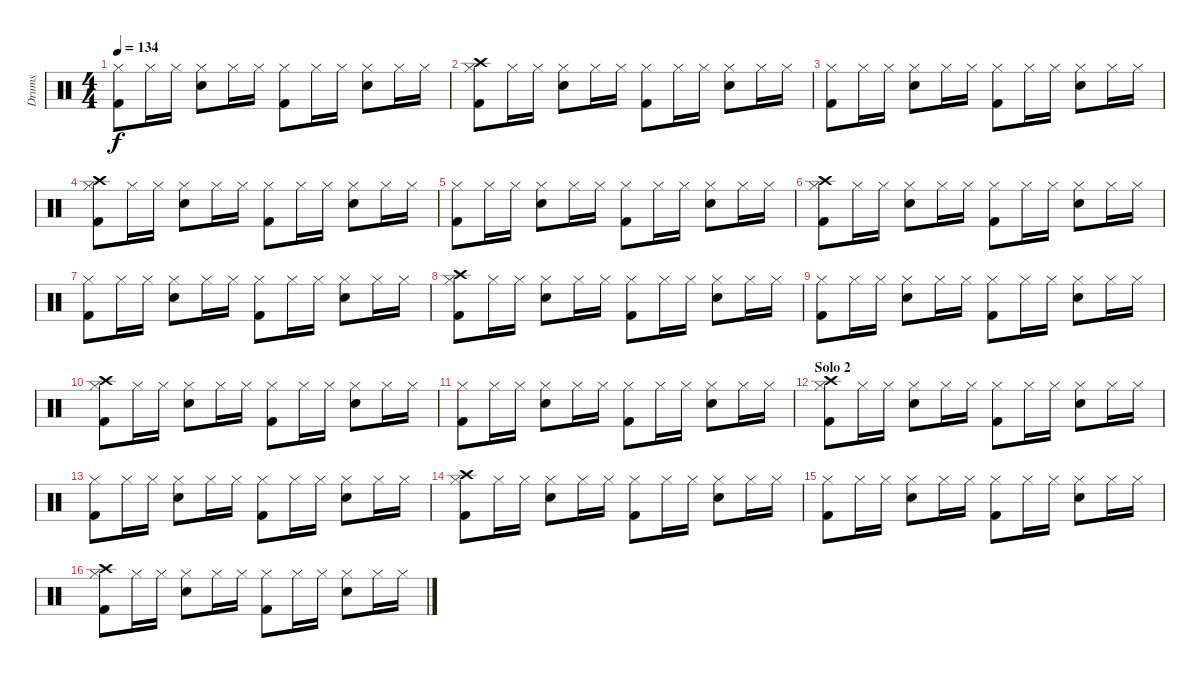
\track ("Drums" "Drums") {instrument percussion}
\staff {score}
\articulation defaults
\ts (4 4)
\tempo 134
\clef neutral
\ks c
("Kick (hit) 2" "Hi-Hat (closed)").8{dy f} "Hi-Hat (closed)".16 "Hi-Hat (closed)".16 ("Snare (hit) 2" "Hi-Hat (closed)").8 "Hi-Hat (closed)".16 "Hi-Hat (closed)".16 ("Kick (hit) 2" "Hi-Hat (closed)").8 "Hi-Hat (closed)".16 "Hi-Hat (closed)".16 ("Snare (hit) 2" "Hi-Hat (closed)").8 "Hi-Hat (closed)".16 "Hi-Hat (closed)".16 |
("Kick (hit) 2" "Hi-Hat (closed)" "Crash high (hit)").8 "Hi-Hat (closed)".16 "Hi-Hat (closed)".16 ("Snare (hit) 2" "Hi-Hat (closed)").8 "Hi-Hat (closed)".16 "Hi-Hat (closed)".16 ("Kick (hit) 2" "Hi-Hat (closed)").8 "Hi-Hat (closed)".16 "Hi-Hat (closed)".16 ("Snare (hit) 2" "Hi-Hat (closed)").8 "Hi-Hat (closed)".16 "Hi-Hat (closed)".16 |
("Kick (hit) 2" "Hi-Hat (closed)").8 "Hi-Hat (closed)".16 "Hi-Hat (closed)".16 ("Snare (hit) 2" "Hi-Hat (closed)").8 "Hi-Hat (closed)".16 "Hi-Hat (closed)".16 ("Kick (hit) 2" "Hi-Hat (closed)").8 "Hi-Hat (closed)".16 "Hi-Hat (closed)".16 ("Snare (hit) 2" "Hi-Hat (closed)").8 "Hi-Hat (closed)".16 "Hi-Hat (closed)".16 |
("Kick (hit) 2" "Hi-Hat (closed)" "Crash high (hit)").8 "Hi-Hat (closed)".16 "Hi-Hat (closed)".16 ("Snare (hit) 2" "Hi-Hat (closed)").8 "Hi-Hat (closed)".16 "Hi-Hat (closed)".16 ("Kick (hit) 2" "Hi-Hat (closed)").8 "Hi-Hat (closed)".16 "Hi-Hat (closed)".16 ("Snare (hit) 2" "Hi-Hat (closed)").8 "Hi-Hat (closed)".16 "Hi-Hat (closed)".16 |
("Kick (hit) 2" "Hi-Hat (closed)").8 "Hi-Hat (closed)".16 "Hi-Hat (closed)".16 ("Snare (hit) 2" "Hi-Hat (closed)").8 "Hi-Hat (closed)".16 "Hi-Hat (closed)".16 ("Kick (hit) 2" "Hi-Hat (closed)").8 "Hi-Hat (closed)".16 "Hi-Hat (closed)".16 ("Snare (hit) 2" "Hi-Hat (closed)").8 "Hi-Hat (closed)".16 "Hi-Hat (closed)".16 |
("Kick (hit) 2" "Hi-Hat (closed)" "Crash high (hit)").8 "Hi-Hat (closed)".16 "Hi-Hat (closed)".16 ("Snare (hit) 2" "Hi-Hat (closed)").8 "Hi-Hat (closed)".16 "Hi-Hat (closed)".16 ("Kick (hit) 2" "Hi-Hat (closed)").8 "Hi-Hat (closed)".16 "Hi-Hat (closed)".16 ("Snare (hit) 2" "Hi-Hat (closed)").8 "Hi-Hat (closed)".16 "Hi-Hat (closed)".16 |
("Kick (hit) 2" "Hi-Hat (closed)").8 "Hi-Hat (closed)".16 "Hi-Hat (closed)".16 ("Snare (hit) 2" "Hi-Hat (closed)").8 "Hi-Hat (closed)".16 "Hi-Hat (closed)".16 ("Kick (hit) 2" "Hi-Hat (closed)").8 "Hi-Hat (closed)".16 "Hi-Hat (closed)".16 ("Snare (hit) 2" "Hi-Hat (closed)").8 "Hi-Hat (closed)".16 "Hi-Hat (closed)".16 |
("Kick (hit) 2" "Hi-Hat (closed)" "Crash high (hit)").8 "Hi-Hat (closed)".16 "Hi-Hat (closed)".16 ("Snare (hit) 2" "Hi-Hat (closed)").8 "Hi-Hat (closed)".16 "Hi-Hat (closed)".16 ("Kick (hit) 2" "Hi-Hat (closed)").8 "Hi-Hat (closed)".16 "Hi-Hat (closed)".16 ("Snare (hit) 2" "Hi-Hat (closed)").8 "Hi-Hat (closed)".16 "Hi-Hat (closed)".16 |
("Kick (hit) 2" "Hi-Hat (closed)").8 "Hi-Hat (closed)".16 "Hi-Hat (closed)".16 ("Snare (hit) 2" "Hi-Hat (closed)").8 "Hi-Hat (closed)".16 "Hi-Hat (closed)".16 ("Kick (hit) 2" "Hi-Hat (closed)").8 "Hi-Hat (closed)".16 "Hi-Hat (closed)".16 ("Snare (hit) 2" "Hi-Hat (closed)").8 "Hi-Hat (closed)".16 "Hi-Hat (closed)".16 |
("Kick (hit) 2" "Hi-Hat (closed)" "Crash high (hit)").8 "Hi-Hat (closed)".16 "Hi-Hat (closed)".16 ("Snare (hit) 2" "Hi-Hat (closed)").8 "Hi-Hat (closed)".16 "Hi-Hat (closed)".16 ("Kick (hit) 2" "Hi-Hat (closed)").8 "Hi-Hat (closed)".16 "Hi-Hat (closed)".16 ("Snare (hit) 2" "Hi-Hat (closed)").8 "Hi-Hat (closed)".16 "Hi-Hat (closed)".16 |
("Kick (hit) 2" "Hi-Hat (closed)").8 "Hi-Hat (closed)".16 "Hi-Hat (closed)".16 ("Snare (hit) 2" "Hi-Hat (closed)").8 "Hi-Hat (closed)".16 "Hi-Hat (closed)".16 ("Kick (hit) 2" "Hi-Hat (closed)").8 "Hi-Hat (closed)".16 "Hi-Hat (closed)".16 ("Snare (hit) 2" "Hi-Hat (closed)").8 "Hi-Hat (closed)".16 "Hi-Hat (closed)".16 |
\section ("" "Solo 2")
("Kick (hit) 2" "Hi-Hat (closed)" "Crash high (hit)").8 "Hi-Hat (closed)".16 "Hi-Hat (closed)".16 ("Snare (hit) 2" "Hi-Hat (closed)").8 "Hi-Hat (closed)".16 "Hi-Hat (closed)".16 ("Kick (hit) 2" "Hi-Hat (closed)").8 "Hi-Hat (closed)".16 "Hi-Hat (closed)".16 ("Snare (hit) 2" "Hi-Hat (closed)").8 "Hi-Hat (closed)".16 "Hi-Hat (closed)".16 |
("Kick (hit) 2" "Hi-Hat (closed)").8 "Hi-Hat (closed)".16 "Hi-Hat (closed)".16 ("Snare (hit) 2" "Hi-Hat (closed)").8 "Hi-Hat (closed)".16 "Hi-Hat (closed)".16 ("Kick (hit) 2" "Hi-Hat (closed)").8 "Hi-Hat (closed)".16 "Hi-Hat (closed)".16 ("Snare (hit) 2" "Hi-Hat (closed)").8 "Hi-Hat (closed)".16 "Hi-Hat (closed)".16 |
("Kick (hit) 2" "Hi-Hat (closed)" "Crash high (hit)").8 "Hi-Hat (closed)".16 "Hi-Hat (closed)".16 ("Snare (hit) 2" "Hi-Hat (closed)").8 "Hi-Hat (closed)".16 "Hi-Hat (closed)".16 ("Kick (hit) 2" "Hi-Hat (closed)").8 "Hi-Hat (closed)".16 "Hi-Hat (closed)".16 ("Snare (hit) 2" "Hi-Hat (closed)").8 "Hi-Hat (closed)".16 "Hi-Hat (closed)".16 |
("Kick (hit) 2" "Hi-Hat (closed)").8 "Hi-Hat (closed)".16 "Hi-Hat (closed)".16 ("Snare (hit) 2" "Hi-Hat (closed)").8 "Hi-Hat (closed)".16 "Hi-Hat (closed)".16 ("Kick (hit) 2" "Hi-Hat (closed)").8 "Hi-Hat (closed)".16 "Hi-Hat (closed)".16 ("Snare (hit) 2" "Hi-Hat (closed)").8 "Hi-Hat (closed)".16 "Hi-Hat (closed)".16 |
("Kick (hit) 2" "Hi-Hat (closed)" "Crash high (hit)").8 "Hi-Hat (closed)".16 "Hi-Hat (closed)".16 ("Snare (hit) 2" "Hi-Hat (closed)").8 "Hi-Hat (closed)".16 "Hi-Hat (closed)".16 ("Kick (hit) 2" "Hi-Hat (closed)").8 "Hi-Hat (closed)".16 "Hi-Hat (closed)".16 ("Snare (hit) 2" "Hi-Hat (closed)").8 "Hi-Hat (closed)".16 "Hi-Hat (closed)".16
